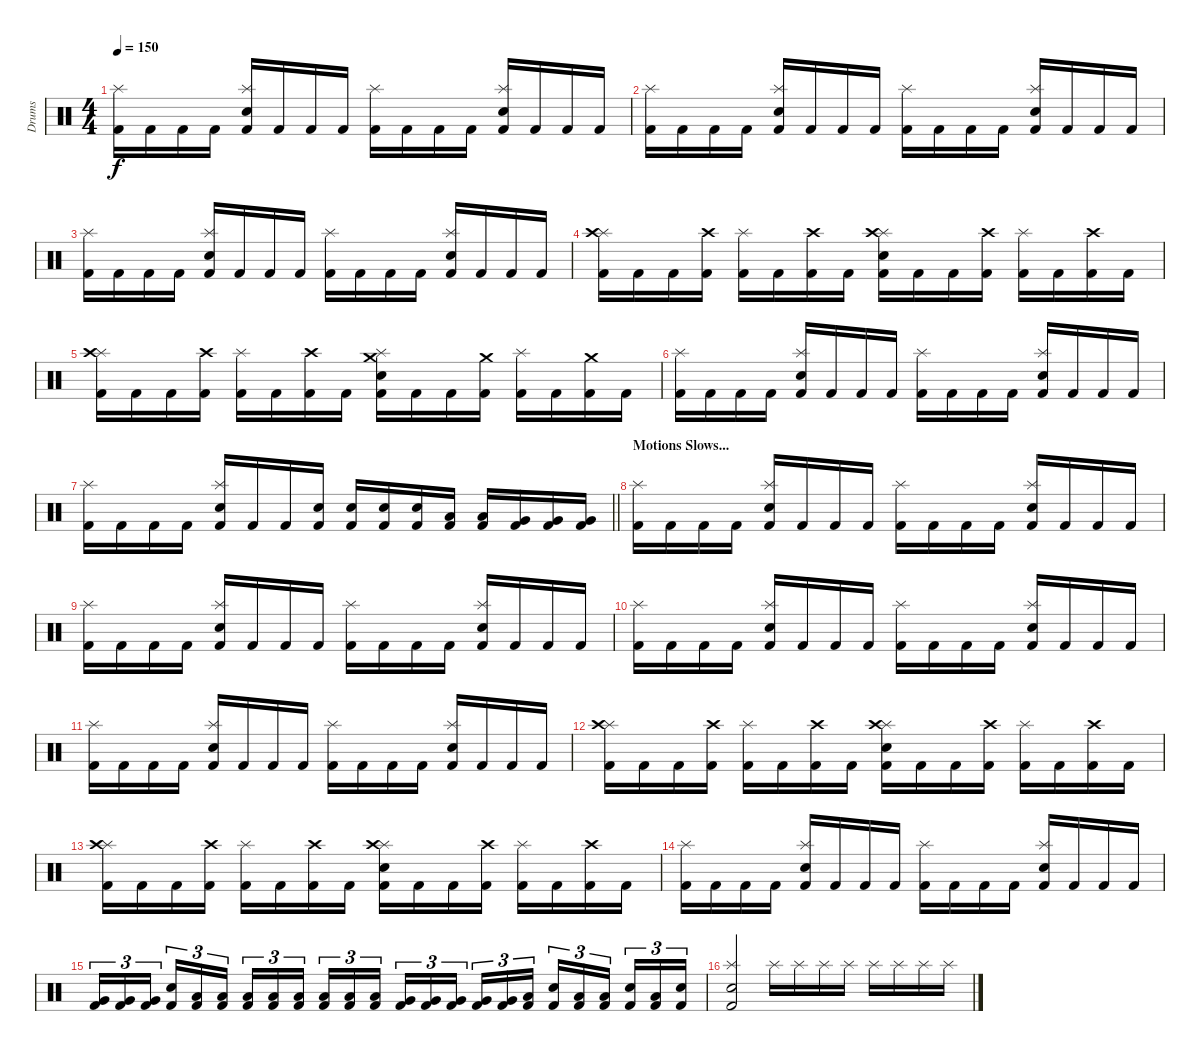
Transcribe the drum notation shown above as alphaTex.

\track ("Drums" "Drums") {instrument percussion}
\staff {score}
\articulation defaults
\ts (4 4)
\tempo 150
\clef neutral
\ks c
("Kick (hit) 2" "Splash (hit)").16{dy f} "Kick (hit) 2".16 "Kick (hit) 2".16 "Kick (hit) 2".16 ("Kick (hit) 2" "Electric Snare (hit)" "Splash (hit)").16 "Kick (hit) 2".16 "Kick (hit) 2".16 "Kick (hit) 2".16 ("Kick (hit) 2" "Splash (hit)").16 "Kick (hit) 2".16 "Kick (hit) 2".16 "Kick (hit) 2".16 ("Kick (hit) 2" "Electric Snare (hit)" "Splash (hit)").16 "Kick (hit) 2".16 "Kick (hit) 2".16 "Kick (hit) 2".16 |
("Kick (hit) 2" "Splash (hit)").16 "Kick (hit) 2".16 "Kick (hit) 2".16 "Kick (hit) 2".16 ("Kick (hit) 2" "Electric Snare (hit)" "Splash (hit)").16 "Kick (hit) 2".16 "Kick (hit) 2".16 "Kick (hit) 2".16 ("Kick (hit) 2" "Splash (hit)").16 "Kick (hit) 2".16 "Kick (hit) 2".16 "Kick (hit) 2".16 ("Kick (hit) 2" "Electric Snare (hit)" "Splash (hit)").16 "Kick (hit) 2".16 "Kick (hit) 2".16 "Kick (hit) 2".16 |
("Kick (hit) 2" "Splash (hit)").16 "Kick (hit) 2".16 "Kick (hit) 2".16 "Kick (hit) 2".16 ("Kick (hit) 2" "Electric Snare (hit)" "Splash (hit)").16 "Kick (hit) 2".16 "Kick (hit) 2".16 "Kick (hit) 2".16 ("Kick (hit) 2" "Splash (hit)").16 "Kick (hit) 2".16 "Kick (hit) 2".16 "Kick (hit) 2".16 ("Kick (hit) 2" "Electric Snare (hit)" "Splash (hit)").16 "Kick (hit) 2".16 "Kick (hit) 2".16 "Kick (hit) 2".16 |
("Kick (hit) 2" "Splash (hit)" "Crash high (hit)").16 "Kick (hit) 2".16 "Kick (hit) 2".16 ("Kick (hit) 2" "Crash high (hit)").16 ("Kick (hit) 2" "Splash (hit)").16 "Kick (hit) 2".16 ("Kick (hit) 2" "Crash high (hit)").16 "Kick (hit) 2".16 ("Kick (hit) 2" "Electric Snare (hit)" "Splash (hit)" "Crash high (hit)").16 "Kick (hit) 2".16 "Kick (hit) 2".16 ("Kick (hit) 2" "Crash high (hit)").16 ("Kick (hit) 2" "Splash (hit)").16 "Kick (hit) 2".16 ("Kick (hit) 2" "Crash high (hit)").16 "Kick (hit) 2".16 |
("Kick (hit) 2" "Splash (hit)" "Crash high (hit)").16 "Kick (hit) 2".16 "Kick (hit) 2".16 ("Kick (hit) 2" "Crash high (hit)").16 ("Kick (hit) 2" "Splash (hit)").16 "Kick (hit) 2".16 ("Kick (hit) 2" "Crash high (hit)").16 "Kick (hit) 2".16 ("Kick (hit) 2" "Electric Snare (hit)" "Splash (hit)" "Crash medium (hit)").16 "Kick (hit) 2".16 "Kick (hit) 2".16 ("Kick (hit) 2" "Crash medium (hit)").16 ("Kick (hit) 2" "Splash (hit)").16 "Kick (hit) 2".16 ("Kick (hit) 2" "Crash medium (hit)").16 "Kick (hit) 2".16 |
("Kick (hit) 2" "Splash (hit)").16 "Kick (hit) 2".16 "Kick (hit) 2".16 "Kick (hit) 2".16 ("Kick (hit) 2" "Electric Snare (hit)" "Splash (hit)").16 "Kick (hit) 2".16 "Kick (hit) 2".16 "Kick (hit) 2".16 ("Kick (hit) 2" "Splash (hit)").16 "Kick (hit) 2".16 "Kick (hit) 2".16 "Kick (hit) 2".16 ("Kick (hit) 2" "Electric Snare (hit)" "Splash (hit)").16 "Kick (hit) 2".16 "Kick (hit) 2".16 "Kick (hit) 2".16 |
\barLineRight lightlight
("Kick (hit) 2" "Splash (hit)").16 "Kick (hit) 2".16 "Kick (hit) 2".16 "Kick (hit) 2".16 ("Kick (hit) 2" "Electric Snare (hit)" "Splash (hit)").16 "Kick (hit) 2".16 "Kick (hit) 2".16 ("Kick (hit) 2" "Electric Snare (hit)").16 ("Kick (hit) 2" "Electric Snare (hit)").16 ("Kick (hit) 2" "Electric Snare (hit)").16 ("Kick (hit) 2" "Electric Snare (hit)").16 ("Kick (hit) 2" "Low Floor Tom (hit)").16 ("Kick (hit) 2" "Low Floor Tom (hit)").16 ("Kick (hit) 2" "Very Low Tom (hit)").16 ("Kick (hit) 2" "Very Low Tom (hit)").16 ("Kick (hit) 2" "Very Low Tom (hit)").16 |
\section ("" "Motions Slows...")
("Kick (hit) 2" "Splash (hit)").16 "Kick (hit) 2".16 "Kick (hit) 2".16 "Kick (hit) 2".16 ("Kick (hit) 2" "Electric Snare (hit)" "Splash (hit)").16 "Kick (hit) 2".16 "Kick (hit) 2".16 "Kick (hit) 2".16 ("Kick (hit) 2" "Splash (hit)").16 "Kick (hit) 2".16 "Kick (hit) 2".16 "Kick (hit) 2".16 ("Kick (hit) 2" "Electric Snare (hit)" "Splash (hit)").16 "Kick (hit) 2".16 "Kick (hit) 2".16 "Kick (hit) 2".16 |
("Kick (hit) 2" "Splash (hit)").16 "Kick (hit) 2".16 "Kick (hit) 2".16 "Kick (hit) 2".16 ("Kick (hit) 2" "Electric Snare (hit)" "Splash (hit)").16 "Kick (hit) 2".16 "Kick (hit) 2".16 "Kick (hit) 2".16 ("Kick (hit) 2" "Splash (hit)").16 "Kick (hit) 2".16 "Kick (hit) 2".16 "Kick (hit) 2".16 ("Kick (hit) 2" "Electric Snare (hit)" "Splash (hit)").16 "Kick (hit) 2".16 "Kick (hit) 2".16 "Kick (hit) 2".16 |
("Kick (hit) 2" "Splash (hit)").16 "Kick (hit) 2".16 "Kick (hit) 2".16 "Kick (hit) 2".16 ("Kick (hit) 2" "Electric Snare (hit)" "Splash (hit)").16 "Kick (hit) 2".16 "Kick (hit) 2".16 "Kick (hit) 2".16 ("Kick (hit) 2" "Splash (hit)").16 "Kick (hit) 2".16 "Kick (hit) 2".16 "Kick (hit) 2".16 ("Kick (hit) 2" "Electric Snare (hit)" "Splash (hit)").16 "Kick (hit) 2".16 "Kick (hit) 2".16 "Kick (hit) 2".16 |
("Kick (hit) 2" "Splash (hit)").16 "Kick (hit) 2".16 "Kick (hit) 2".16 "Kick (hit) 2".16 ("Kick (hit) 2" "Electric Snare (hit)" "Splash (hit)").16 "Kick (hit) 2".16 "Kick (hit) 2".16 "Kick (hit) 2".16 ("Kick (hit) 2" "Splash (hit)").16 "Kick (hit) 2".16 "Kick (hit) 2".16 "Kick (hit) 2".16 ("Kick (hit) 2" "Electric Snare (hit)" "Splash (hit)").16 "Kick (hit) 2".16 "Kick (hit) 2".16 "Kick (hit) 2".16 |
("Kick (hit) 2" "Splash (hit)" "Crash high (hit)").16 "Kick (hit) 2".16 "Kick (hit) 2".16 ("Kick (hit) 2" "Crash high (hit)").16 ("Kick (hit) 2" "Splash (hit)").16 "Kick (hit) 2".16 ("Kick (hit) 2" "Crash high (hit)").16 "Kick (hit) 2".16 ("Kick (hit) 2" "Electric Snare (hit)" "Splash (hit)" "Crash high (hit)").16 "Kick (hit) 2".16 "Kick (hit) 2".16 ("Kick (hit) 2" "Crash high (hit)").16 ("Kick (hit) 2" "Splash (hit)").16 "Kick (hit) 2".16 ("Kick (hit) 2" "Crash high (hit)").16 "Kick (hit) 2".16 |
("Kick (hit) 2" "Splash (hit)" "Crash high (hit)").16 "Kick (hit) 2".16 "Kick (hit) 2".16 ("Kick (hit) 2" "Crash high (hit)").16 ("Kick (hit) 2" "Splash (hit)").16 "Kick (hit) 2".16 ("Kick (hit) 2" "Crash high (hit)").16 "Kick (hit) 2".16 ("Kick (hit) 2" "Electric Snare (hit)" "Splash (hit)" "Crash high (hit)").16 "Kick (hit) 2".16 "Kick (hit) 2".16 ("Kick (hit) 2" "Crash high (hit)").16 ("Kick (hit) 2" "Splash (hit)").16 "Kick (hit) 2".16 ("Kick (hit) 2" "Crash high (hit)").16 "Kick (hit) 2".16 |
("Kick (hit) 2" "Splash (hit)").16 "Kick (hit) 2".16 "Kick (hit) 2".16 "Kick (hit) 2".16 ("Kick (hit) 2" "Electric Snare (hit)" "Splash (hit)").16 "Kick (hit) 2".16 "Kick (hit) 2".16 "Kick (hit) 2".16 ("Kick (hit) 2" "Splash (hit)").16 "Kick (hit) 2".16 "Kick (hit) 2".16 "Kick (hit) 2".16 ("Kick (hit) 2" "Electric Snare (hit)" "Splash (hit)").16 "Kick (hit) 2".16 "Kick (hit) 2".16 "Kick (hit) 2".16 |
("Kick (hit) 2" "Very Low Tom (hit)").16{tu (3 2)} ("Kick (hit) 2" "Very Low Tom (hit)").16{tu (3 2)} ("Kick (hit) 2" "Very Low Tom (hit)").16{tu (3 2) beam splitsecondary} ("Kick (hit) 2" "Electric Snare (hit)").16{tu (3 2)} ("Kick (hit) 2" "Low Tom (hit)").16{tu (3 2)} ("Kick (hit) 2" "Low Tom (hit)").16{tu (3 2)} ("Kick (hit) 2" "Low Tom (hit)").16{tu (3 2)} ("Kick (hit) 2" "Low Tom (hit)").16{tu (3 2)} ("Kick (hit) 2" "Low Tom (hit)").16{tu (3 2) beam splitsecondary} ("Kick (hit) 2" "Low Tom (hit)").16{tu (3 2)} ("Kick (hit) 2" "Low Tom (hit)").16{tu (3 2)} ("Kick (hit) 2" "Low Tom (hit)").16{tu (3 2)} ("Kick (hit) 2" "Very Low Tom (hit)").16{tu (3 2)} ("Kick (hit) 2" "Very Low Tom (hit)").16{tu (3 2)} ("Kick (hit) 2" "Very Low Tom (hit)").16{tu (3 2) beam splitsecondary} ("Kick (hit) 2" "Very Low Tom (hit)").16{tu (3 2)} ("Kick (hit) 2" "Very Low Tom (hit)").16{tu (3 2)} ("Kick (hit) 2" "Low Floor Tom (hit)").16{tu (3 2)} ("Kick (hit) 2" "Electric Snare (hit)").16{tu (3 2)} ("Kick (hit) 2" "Low Floor Tom (hit)").16{tu (3 2)} ("Kick (hit) 2" "Low Floor Tom (hit)").16{tu (3 2) beam splitsecondary} ("Kick (hit) 2" "Electric Snare (hit)").16{tu (3 2)} ("Kick (hit) 2" "Low Floor Tom (hit)").16{tu (3 2)} ("Kick (hit) 2" "Electric Snare (hit)").16{tu (3 2)} |
("Kick (hit) 2" "Electric Snare (hit)" "Splash (hit)").2{volume 0} "Splash (hit)".16 "Splash (hit)".16 "Splash (hit)".16 "Splash (hit)".16 "Splash (hit)".16 "Splash (hit)".16 "Splash (hit)".16 "Splash (hit)".16
